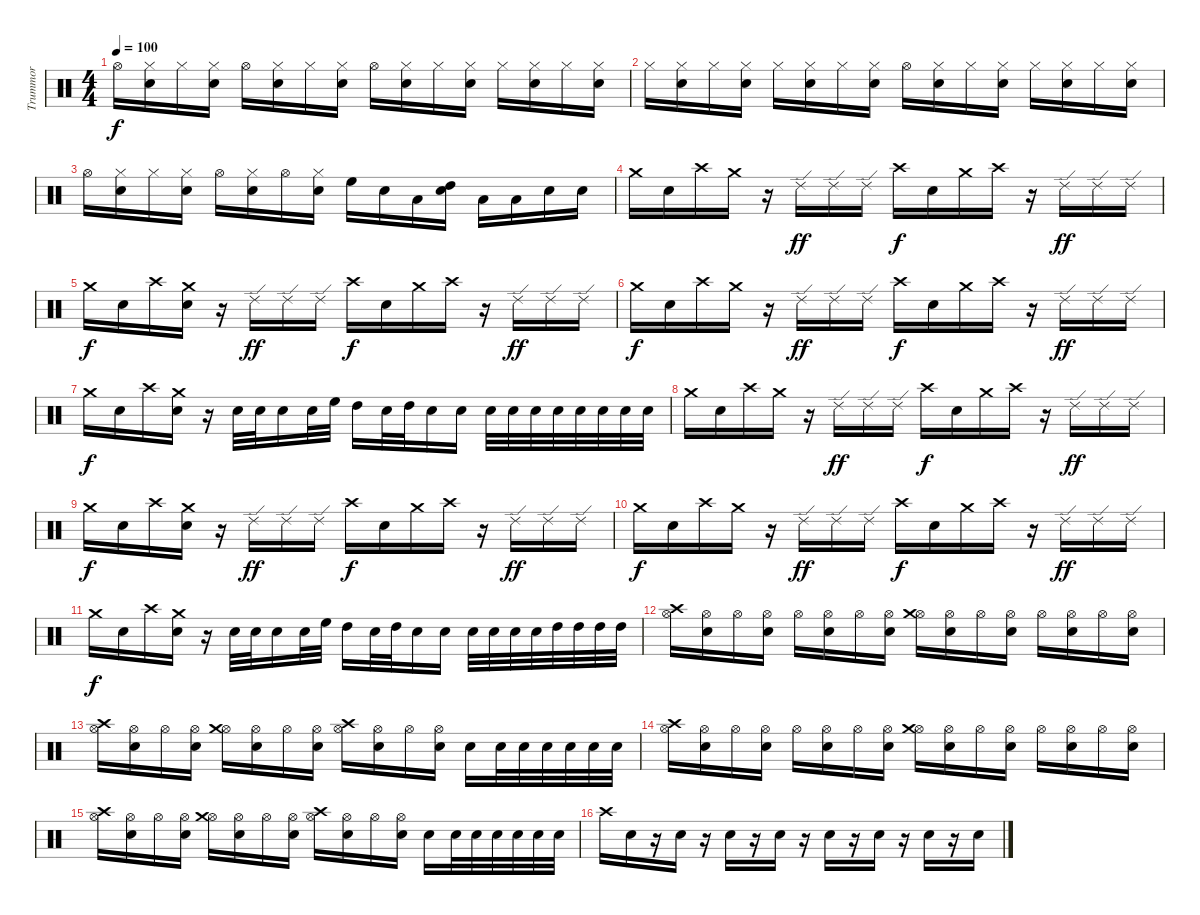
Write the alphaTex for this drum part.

\track ("Trummor" "Trummor") {instrument percussion}
\staff {score}
\articulation defaults
\ts (4 4)
\tempo 100
\clef neutral
\ks c "Hi-Hat (open)".16{dy f}
("Hi-Hat (closed)" "Electric Snare (hit)").16 "Hi-Hat (closed)".16 ("Hi-Hat (closed)" "Electric Snare (hit)").16 "Hi-Hat (open)".16 ("Hi-Hat (closed)" "Electric Snare (hit)").16 "Hi-Hat (closed)".16 ("Hi-Hat (closed)" "Electric Snare (hit)").16 "Hi-Hat (open)".16 ("Hi-Hat (closed)" "Electric Snare (hit)").16 "Hi-Hat (closed)".16 ("Hi-Hat (closed)" "Electric Snare (hit)").16 "Hi-Hat (closed)".16 ("Hi-Hat (closed)" "Electric Snare (hit)").16 "Hi-Hat (closed)".16 ("Hi-Hat (closed)" "Electric Snare (hit)").16 |
"Hi-Hat (closed)".16 ("Hi-Hat (closed)" "Electric Snare (hit)").16 "Hi-Hat (closed)".16 ("Hi-Hat (closed)" "Electric Snare (hit)").16 "Hi-Hat (closed)".16 ("Hi-Hat (closed)" "Electric Snare (hit)").16 "Hi-Hat (closed)".16 ("Hi-Hat (closed)" "Electric Snare (hit)").16 "Hi-Hat (open)".16 ("Hi-Hat (closed)" "Electric Snare (hit)").16 "Hi-Hat (closed)".16 ("Hi-Hat (closed)" "Electric Snare (hit)").16 "Hi-Hat (closed)".16 ("Hi-Hat (closed)" "Electric Snare (hit)").16 "Hi-Hat (closed)".16 ("Hi-Hat (closed)" "Electric Snare (hit)").16 |
"Hi-Hat (open)".16 ("Hi-Hat (closed)" "Electric Snare (hit)").16 "Hi-Hat (closed)".16 ("Hi-Hat (closed)" "Electric Snare (hit)").16 "Hi-Hat (open)".16 ("Hi-Hat (closed)" "Electric Snare (hit)").16 "Hi-Hat (open)".16 ("Hi-Hat (closed)" "Electric Snare (hit)").16 "High Floor Tom (hit)".16 "Electric Snare (hit)".16 "Low Tom (hit)".16 ("High Tom (hit)" "Electric Snare (hit)").16 "Low Tom (hit)".16 "Low Tom (hit)".16 "Electric Snare (hit)".16 "Electric Snare (hit)".16 |
"Crash medium (hit)".16 "Electric Snare (hit)".16 "Crash high (hit)".16 "Crash medium (hit)".16 r.16 "Ride (edge) 2".16{dy ff} "Ride (edge) 2".16 "Ride (edge) 2".16 "Crash high (hit)".16{dy f} "Electric Snare (hit)".16 "Crash medium (hit)".16 "Crash high (hit)".16 r.16 "Ride (edge) 2".16{dy ff} "Ride (edge) 2".16 "Ride (edge) 2".16 |
"Crash medium (hit)".16{dy f} "Electric Snare (hit)".16 "Crash high (hit)".16 ("Electric Snare (hit)" "Crash medium (hit)").16 r.16 "Ride (edge) 2".16{dy ff} "Ride (edge) 2".16 "Ride (edge) 2".16 "Crash high (hit)".16{dy f} "Electric Snare (hit)".16 "Crash medium (hit)".16 "Crash high (hit)".16 r.16 "Ride (edge) 2".16{dy ff} "Ride (edge) 2".16 "Ride (edge) 2".16 |
"Crash medium (hit)".16{dy f} "Electric Snare (hit)".16 "Crash high (hit)".16 "Crash medium (hit)".16 r.16 "Ride (edge) 2".16{dy ff} "Ride (edge) 2".16 "Ride (edge) 2".16 "Crash high (hit)".16{dy f} "Electric Snare (hit)".16 "Crash medium (hit)".16 "Crash high (hit)".16 r.16 "Ride (edge) 2".16{dy ff} "Ride (edge) 2".16 "Ride (edge) 2".16 |
"Crash medium (hit)".16{dy f} "Electric Snare (hit)".16 "Crash high (hit)".16 ("Electric Snare (hit)" "Crash medium (hit)").16 r.16 "Electric Snare (hit)".32 "Electric Snare (hit)".32 "Electric Snare (hit)".16 "Electric Snare (hit)".32 "High Floor Tom (hit)".32 "High Tom (hit)".16 "Electric Snare (hit)".32 "High Tom (hit)".32 "Electric Snare (hit)".16 "Electric Snare (hit)".16 "Electric Snare (hit)".32 "Electric Snare (hit)".32 "Electric Snare (hit)".32 "Electric Snare (hit)".32 "Electric Snare (hit)".32 "Electric Snare (hit)".32 "Electric Snare (hit)".32 "Electric Snare (hit)".32 |
"Crash medium (hit)".16 "Electric Snare (hit)".16 "Crash high (hit)".16 "Crash medium (hit)".16 r.16 "Ride (edge) 2".16{dy ff} "Ride (edge) 2".16 "Ride (edge) 2".16 "Crash high (hit)".16{dy f} "Electric Snare (hit)".16 "Crash medium (hit)".16 "Crash high (hit)".16 r.16 "Ride (edge) 2".16{dy ff} "Ride (edge) 2".16 "Ride (edge) 2".16 |
"Crash medium (hit)".16{dy f} "Electric Snare (hit)".16 "Crash high (hit)".16 ("Electric Snare (hit)" "Crash medium (hit)").16 r.16 "Ride (edge) 2".16{dy ff} "Ride (edge) 2".16 "Ride (edge) 2".16 "Crash high (hit)".16{dy f} "Electric Snare (hit)".16 "Crash medium (hit)".16 "Crash high (hit)".16 r.16 "Ride (edge) 2".16{dy ff} "Ride (edge) 2".16 "Ride (edge) 2".16 |
"Crash medium (hit)".16{dy f} "Electric Snare (hit)".16 "Crash high (hit)".16 "Crash medium (hit)".16 r.16 "Ride (edge) 2".16{dy ff} "Ride (edge) 2".16 "Ride (edge) 2".16 "Crash high (hit)".16{dy f} "Electric Snare (hit)".16 "Crash medium (hit)".16 "Crash high (hit)".16 r.16 "Ride (edge) 2".16{dy ff} "Ride (edge) 2".16 "Ride (edge) 2".16 |
"Crash medium (hit)".16{dy f} "Electric Snare (hit)".16 "Crash high (hit)".16 ("Electric Snare (hit)" "Crash medium (hit)").16 r.16 "Electric Snare (hit)".32 "Electric Snare (hit)".32 "Electric Snare (hit)".16 "Electric Snare (hit)".32 "High Floor Tom (hit)".32 "High Tom (hit)".16 "Electric Snare (hit)".32 "High Tom (hit)".32 "Electric Snare (hit)".16 "Electric Snare (hit)".16 "Electric Snare (hit)".32 "Electric Snare (hit)".32 "Electric Snare (hit)".32 "Electric Snare (hit)".32 "High Tom (hit)".32 "High Tom (hit)".32 "High Tom (hit)".32 "High Tom (hit)".32 |
("Hi-Hat (open)" "Crash high (hit)").16 ("Hi-Hat (open)" "Electric Snare (hit)").16 "Hi-Hat (open)".16 ("Hi-Hat (open)" "Electric Snare (hit)").16 "Hi-Hat (open)".16 ("Hi-Hat (open)" "Electric Snare (hit)").16 "Hi-Hat (open)".16 ("Hi-Hat (open)" "Electric Snare (hit)").16 ("Hi-Hat (open)" "Crash medium (hit)").16 ("Hi-Hat (open)" "Electric Snare (hit)").16 "Hi-Hat (open)".16 ("Hi-Hat (open)" "Electric Snare (hit)").16 "Hi-Hat (open)".16 ("Hi-Hat (open)" "Electric Snare (hit)").16 "Hi-Hat (open)".16 ("Hi-Hat (open)" "Electric Snare (hit)").16 |
("Hi-Hat (open)" "Crash high (hit)").16 ("Hi-Hat (open)" "Electric Snare (hit)").16 "Hi-Hat (open)".16 ("Hi-Hat (open)" "Electric Snare (hit)").16 ("Hi-Hat (open)" "Crash medium (hit)").16 ("Hi-Hat (open)" "Electric Snare (hit)").16 "Hi-Hat (open)".16 ("Hi-Hat (open)" "Electric Snare (hit)").16 ("Hi-Hat (open)" "Crash high (hit)").16 ("Hi-Hat (open)" "Electric Snare (hit)").16 "Hi-Hat (open)".16 ("Hi-Hat (open)" "Electric Snare (hit)").16 "Electric Snare (hit)".16 "Electric Snare (hit)".32 "Electric Snare (hit)".32 "Electric Snare (hit)".32 "Electric Snare (hit)".32 "Electric Snare (hit)".32 "Electric Snare (hit)".32 |
("Hi-Hat (open)" "Crash high (hit)").16 ("Hi-Hat (open)" "Electric Snare (hit)").16 "Hi-Hat (open)".16 ("Hi-Hat (open)" "Electric Snare (hit)").16 "Hi-Hat (open)".16 ("Hi-Hat (open)" "Electric Snare (hit)").16 "Hi-Hat (open)".16 ("Hi-Hat (open)" "Electric Snare (hit)").16 ("Hi-Hat (open)" "Crash medium (hit)").16 ("Hi-Hat (open)" "Electric Snare (hit)").16 "Hi-Hat (open)".16 ("Hi-Hat (open)" "Electric Snare (hit)").16 "Hi-Hat (open)".16 ("Hi-Hat (open)" "Electric Snare (hit)").16 "Hi-Hat (open)".16 ("Hi-Hat (open)" "Electric Snare (hit)").16 |
("Hi-Hat (open)" "Crash high (hit)").16 ("Hi-Hat (open)" "Electric Snare (hit)").16 "Hi-Hat (open)".16 ("Hi-Hat (open)" "Electric Snare (hit)").16 ("Hi-Hat (open)" "Crash medium (hit)").16 ("Hi-Hat (open)" "Electric Snare (hit)").16 "Hi-Hat (open)".16 ("Hi-Hat (open)" "Electric Snare (hit)").16 ("Hi-Hat (open)" "Crash high (hit)").16 ("Hi-Hat (open)" "Electric Snare (hit)").16 "Hi-Hat (open)".16 ("Hi-Hat (open)" "Electric Snare (hit)").16 "Electric Snare (hit)".16 "Electric Snare (hit)".32 "Electric Snare (hit)".32 "Electric Snare (hit)".32 "Electric Snare (hit)".32 "Electric Snare (hit)".32 "Electric Snare (hit)".32 |
"Crash high (hit)".16 "Electric Snare (hit)".16 r.16 "Electric Snare (hit)".16 r.16 "Electric Snare (hit)".16 r.16 "Electric Snare (hit)".16 r.16 "Electric Snare (hit)".16 r.16 "Electric Snare (hit)".16 r.16 "Electric Snare (hit)".16 r.16 "Electric Snare (hit)".16
